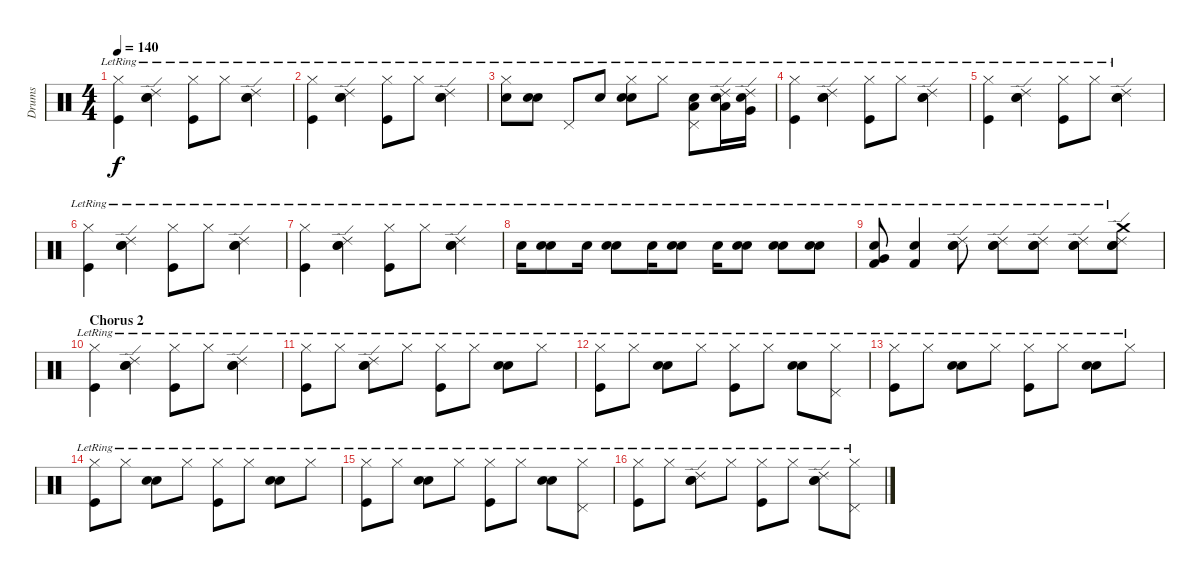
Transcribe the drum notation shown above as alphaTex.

\track ("Drums" "Drums") {instrument percussion}
\staff {score}
\articulation defaults
\ts (4 4)
\tempo 140
\clef neutral
\ks c
("Hi-Hat (closed)"{lr} "Kick (hit)"{lr}).4{dy f} ("Electric Snare (hit)"{lr} "Ride (edge) 2"{lr} "Snare (hit) 2"{lr}).4 ("Hi-Hat (closed)"{lr} "Kick (hit)"{lr}).8 "Hi-Hat (closed)"{lr}.8 ("Electric Snare (hit)"{lr} "Ride (edge) 2"{lr} "Snare (hit) 2"{lr}).4 |
("Hi-Hat (closed)"{lr} "Kick (hit)"{lr}).4 ("Electric Snare (hit)"{lr} "Ride (edge) 2"{lr} "Snare (hit) 2"{lr}).4 ("Hi-Hat (closed)"{lr} "Kick (hit)"{lr}).8 "Hi-Hat (closed)"{lr}.8 ("Electric Snare (hit)"{lr} "Ride (edge) 2"{lr} "Snare (hit) 2"{lr}).4 |
("Hi-Hat (closed)"{lr} "Snare (hit) 2"{lr}).8 ("Snare (hit) 2"{lr} "Electric Snare (hit)"{lr}).8 "Pedal Hi-Hat (hit)"{lr}.8 "Snare (hit) 2"{lr}.8 ("Hi-Hat (closed)"{lr} "Snare (hit) 2"{lr} "Electric Snare (hit)"{lr}).8 "Hi-Hat (closed)"{lr}.8 ("Pedal Hi-Hat (hit)"{lr} "Snare (hit) 2"{lr} "Low Tom (hit)"{lr}).8 ("Ride (edge) 2"{lr} "Snare (hit) 2"{lr} "Low Tom (hit)"{lr}).16 ("Ride (edge) 2"{lr} "Snare (hit) 2"{lr} "Very Low Tom (hit)"{lr}).16 |
("Hi-Hat (closed)"{lr} "Kick (hit)"{lr}).4 ("Electric Snare (hit)"{lr} "Ride (edge) 2"{lr} "Snare (hit) 2"{lr}).4 ("Hi-Hat (closed)"{lr} "Kick (hit)"{lr}).8 "Hi-Hat (closed)"{lr}.8 ("Electric Snare (hit)"{lr} "Ride (edge) 2"{lr} "Snare (hit) 2"{lr}).4 |
("Hi-Hat (closed)"{lr} "Kick (hit)"{lr}).4 ("Electric Snare (hit)"{lr} "Ride (edge) 2"{lr} "Snare (hit) 2"{lr}).4 ("Hi-Hat (closed)"{lr} "Kick (hit)"{lr}).8 "Hi-Hat (closed)"{lr}.8 ("Electric Snare (hit)"{lr} "Ride (edge) 2"{lr} "Snare (hit) 2"{lr}).4 |
("Hi-Hat (closed)"{lr} "Kick (hit)"{lr}).4 ("Electric Snare (hit)"{lr} "Ride (edge) 2"{lr} "Snare (hit) 2"{lr}).4 ("Hi-Hat (closed)"{lr} "Kick (hit)"{lr}).8 "Hi-Hat (closed)"{lr}.8 ("Electric Snare (hit)"{lr} "Ride (edge) 2"{lr} "Snare (hit) 2"{lr}).4 |
("Hi-Hat (closed)"{lr} "Kick (hit)"{lr}).4 ("Electric Snare (hit)"{lr} "Ride (edge) 2"{lr} "Snare (hit) 2"{lr}).4 ("Hi-Hat (closed)"{lr} "Kick (hit)"{lr}).8 "Hi-Hat (closed)"{lr}.8 ("Electric Snare (hit)"{lr} "Ride (edge) 2"{lr} "Snare (hit) 2"{lr}).4 |
"Snare (hit) 2"{lr}.16 ("Snare (hit) 2"{lr} "Electric Snare (hit)"{lr}).8 "Snare (hit) 2"{lr}.16 ("Snare (hit) 2"{lr} "Electric Snare (hit)"{lr}).8 "Snare (hit) 2"{lr}.16 ("Snare (hit) 2"{lr} "Electric Snare (hit)"{lr}).8 "Snare (hit) 2"{lr}.16 ("Snare (hit) 2"{lr} "Electric Snare (hit)"{lr}).8 ("Snare (hit) 2"{lr} "Electric Snare (hit)"{lr}).8 ("Snare (hit) 2"{lr} "Electric Snare (hit)"{lr}).8 |
("Kick (hit) 2"{lr} "Very Low Tom (hit)"{lr} "Electric Snare (hit)"{lr}).8 ("Kick (hit) 2"{lr} "Electric Snare (hit)"{lr}).4 ("Snare (hit) 2"{lr} "Electric Snare (hit)"{lr} "Ride (edge) 2"{lr}).8 ("Snare (hit) 2"{lr} "Electric Snare (hit)"{lr} "Ride (edge) 2"{lr}).8 ("Snare (hit) 2"{lr} "Electric Snare (hit)"{lr} "Ride (edge) 2"{lr}).8 ("Snare (hit) 2"{lr} "Electric Snare (hit)"{lr} "Ride (edge) 2"{lr}).8 ("Snare (hit) 2"{lr} "Electric Snare (hit)"{lr} "Ride (edge) 2"{lr} "Crash medium (hit)"{lr}).8 |
\section ("" "Chorus 2")
("Hi-Hat (closed)"{lr} "Kick (hit)"{lr}).4 ("Electric Snare (hit)"{lr} "Ride (edge) 2"{lr} "Snare (hit) 2"{lr}).4 ("Hi-Hat (closed)"{lr} "Kick (hit)"{lr}).8 "Hi-Hat (closed)"{lr}.8 ("Electric Snare (hit)"{lr} "Ride (edge) 2"{lr} "Snare (hit) 2"{lr}).4 |
("Hi-Hat (closed)"{lr} "Kick (hit)"{lr}).8 "Hi-Hat (closed)"{lr}.8 ("Electric Snare (hit)"{lr} "Ride (edge) 2"{lr} "Snare (hit) 2"{lr}).8 "Hi-Hat (closed)"{lr}.8 ("Hi-Hat (closed)"{lr} "Kick (hit)"{lr}).8 "Hi-Hat (closed)"{lr}.8 ("Electric Snare (hit)"{lr} "Snare (hit) 2"{lr}).8 "Hi-Hat (closed)"{lr}.8 |
("Hi-Hat (closed)"{lr} "Kick (hit)"{lr}).8 "Hi-Hat (closed)"{lr}.8 ("Electric Snare (hit)"{lr} "Snare (hit) 2"{lr}).8 "Hi-Hat (closed)"{lr}.8 ("Hi-Hat (closed)"{lr} "Kick (hit)"{lr}).8 "Hi-Hat (closed)"{lr}.8 ("Electric Snare (hit)"{lr} "Snare (hit) 2"{lr}).8 ("Hi-Hat (closed)"{lr} "Pedal Hi-Hat (hit)"{lr}).8 |
("Hi-Hat (closed)"{lr} "Kick (hit)"{lr}).8 "Hi-Hat (closed)"{lr}.8 ("Electric Snare (hit)"{lr} "Snare (hit) 2"{lr}).8 "Hi-Hat (closed)"{lr}.8 ("Hi-Hat (closed)"{lr} "Kick (hit)"{lr}).8 "Hi-Hat (closed)"{lr}.8 ("Electric Snare (hit)"{lr} "Snare (hit) 2"{lr}).8 "Hi-Hat (closed)"{lr}.8 |
("Hi-Hat (closed)"{lr} "Kick (hit)"{lr}).8 "Hi-Hat (closed)"{lr}.8 ("Electric Snare (hit)"{lr} "Snare (hit) 2"{lr}).8 "Hi-Hat (closed)"{lr}.8 ("Hi-Hat (closed)"{lr} "Kick (hit)"{lr}).8 "Hi-Hat (closed)"{lr}.8 ("Electric Snare (hit)"{lr} "Snare (hit) 2"{lr}).8 "Hi-Hat (closed)"{lr}.8 |
("Hi-Hat (closed)"{lr} "Kick (hit)"{lr}).8 "Hi-Hat (closed)"{lr}.8 ("Electric Snare (hit)"{lr} "Snare (hit) 2"{lr}).8 "Hi-Hat (closed)"{lr}.8 ("Hi-Hat (closed)"{lr} "Kick (hit)"{lr}).8 "Hi-Hat (closed)"{lr}.8 ("Electric Snare (hit)"{lr} "Snare (hit) 2"{lr}).8 ("Hi-Hat (closed)"{lr} "Pedal Hi-Hat (hit)"{lr}).8 |
("Hi-Hat (closed)"{lr} "Kick (hit)"{lr}).8 "Hi-Hat (closed)"{lr}.8 ("Electric Snare (hit)"{lr} "Ride (edge) 2"{lr} "Snare (hit) 2"{lr}).8 "Hi-Hat (closed)"{lr}.8 ("Hi-Hat (closed)"{lr} "Kick (hit)"{lr}).8 "Hi-Hat (closed)"{lr}.8 ("Electric Snare (hit)"{lr} "Ride (edge) 2"{lr} "Snare (hit) 2"{lr}).8 ("Hi-Hat (closed)"{lr} "Pedal Hi-Hat (hit)"{lr}).8
